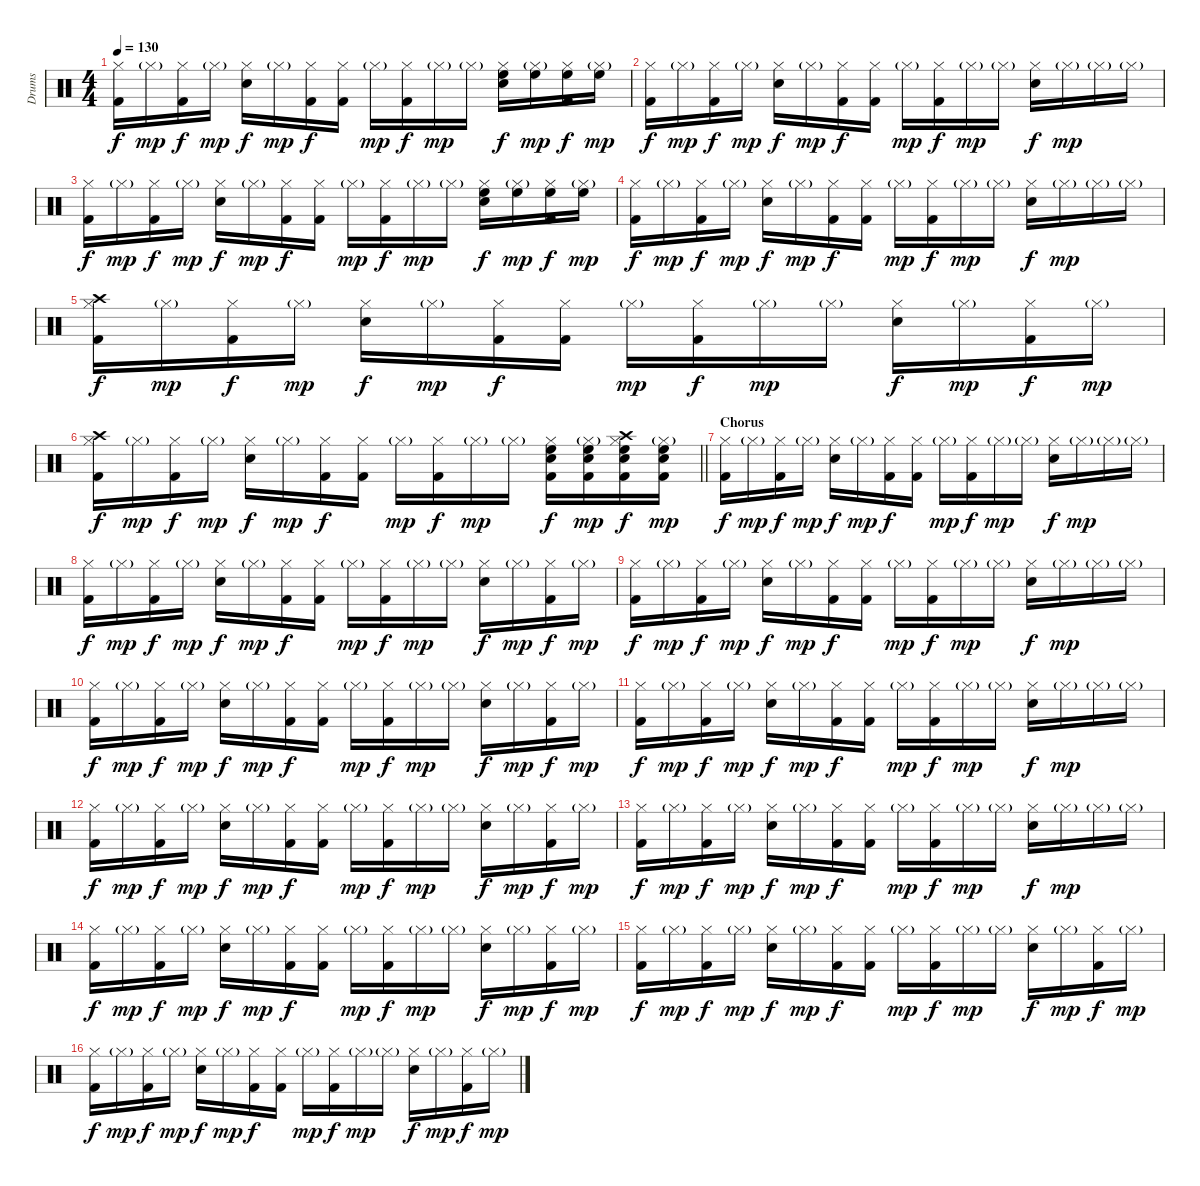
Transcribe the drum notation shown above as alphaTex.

\track ("Drums" "Drums") {instrument percussion}
\staff {score}
\articulation defaults
\ts (4 4)
\tempo 130
\clef neutral
\ks c
("Hi-Hat (closed)" "Kick (hit) 2").16{dy f} "Hi-Hat (closed)"{g}.16{dy mp} ("Hi-Hat (closed)" "Kick (hit) 2").16{dy f} "Hi-Hat (closed)"{g}.16{dy mp} ("Hi-Hat (closed)" "Snare (hit) 2").16{dy f} "Hi-Hat (closed)"{g}.16{dy mp} ("Hi-Hat (closed)" "Kick (hit) 2").16{dy f} ("Hi-Hat (closed)" "Kick (hit) 2").16 "Hi-Hat (closed)"{g}.16{dy mp} ("Hi-Hat (closed)" "Kick (hit) 2").16{dy f} "Hi-Hat (closed)"{g}.16{dy mp} "Hi-Hat (closed)"{g}.16 ("Hi-Hat (closed)" "Snare (hit) 2" "High Floor Tom (hit)").16{dy f} ("Hi-Hat (closed)"{g} "High Floor Tom (hit)").16{dy mp} ("Hi-Hat (closed)" "Kick (hit) 2" "High Floor Tom (hit)").16{dy f} ("Hi-Hat (closed)"{g} "High Floor Tom (hit)").16{dy mp} |
("Hi-Hat (closed)" "Kick (hit) 2").16{dy f} "Hi-Hat (closed)"{g}.16{dy mp} ("Hi-Hat (closed)" "Kick (hit) 2").16{dy f} "Hi-Hat (closed)"{g}.16{dy mp} ("Hi-Hat (closed)" "Snare (hit) 2").16{dy f} "Hi-Hat (closed)"{g}.16{dy mp} ("Hi-Hat (closed)" "Kick (hit) 2").16{dy f} ("Hi-Hat (closed)" "Kick (hit) 2").16 "Hi-Hat (closed)"{g}.16{dy mp} ("Hi-Hat (closed)" "Kick (hit) 2").16{dy f} "Hi-Hat (closed)"{g}.16{dy mp} "Hi-Hat (closed)"{g}.16 ("Hi-Hat (closed)" "Snare (hit) 2").16{dy f} "Hi-Hat (closed)"{g}.16{dy mp} "Hi-Hat (closed)"{g}.16 "Hi-Hat (closed)"{g}.16 |
("Hi-Hat (closed)" "Kick (hit) 2").16{dy f} "Hi-Hat (closed)"{g}.16{dy mp} ("Hi-Hat (closed)" "Kick (hit) 2").16{dy f} "Hi-Hat (closed)"{g}.16{dy mp} ("Hi-Hat (closed)" "Snare (hit) 2").16{dy f} "Hi-Hat (closed)"{g}.16{dy mp} ("Hi-Hat (closed)" "Kick (hit) 2").16{dy f} ("Hi-Hat (closed)" "Kick (hit) 2").16 "Hi-Hat (closed)"{g}.16{dy mp} ("Hi-Hat (closed)" "Kick (hit) 2").16{dy f} "Hi-Hat (closed)"{g}.16{dy mp} "Hi-Hat (closed)"{g}.16 ("Hi-Hat (closed)" "Snare (hit) 2" "High Floor Tom (hit)").16{dy f} ("Hi-Hat (closed)"{g} "High Floor Tom (hit)").16{dy mp} ("Hi-Hat (closed)" "Kick (hit) 2" "High Floor Tom (hit)").16{dy f} ("Hi-Hat (closed)"{g} "High Floor Tom (hit)").16{dy mp} |
("Hi-Hat (closed)" "Kick (hit) 2").16{dy f} "Hi-Hat (closed)"{g}.16{dy mp} ("Hi-Hat (closed)" "Kick (hit) 2").16{dy f} "Hi-Hat (closed)"{g}.16{dy mp} ("Hi-Hat (closed)" "Snare (hit) 2").16{dy f} "Hi-Hat (closed)"{g}.16{dy mp} ("Hi-Hat (closed)" "Kick (hit) 2").16{dy f} ("Hi-Hat (closed)" "Kick (hit) 2").16 "Hi-Hat (closed)"{g}.16{dy mp} ("Hi-Hat (closed)" "Kick (hit) 2").16{dy f} "Hi-Hat (closed)"{g}.16{dy mp} "Hi-Hat (closed)"{g}.16 ("Hi-Hat (closed)" "Snare (hit) 2").16{dy f} "Hi-Hat (closed)"{g}.16{dy mp} "Hi-Hat (closed)"{g}.16 "Hi-Hat (closed)"{g}.16 |
("Hi-Hat (closed)" "Kick (hit) 2" "Crash high (hit)").16{dy f} "Hi-Hat (closed)"{g}.16{dy mp} ("Hi-Hat (closed)" "Kick (hit) 2").16{dy f} "Hi-Hat (closed)"{g}.16{dy mp} ("Hi-Hat (closed)" "Snare (hit) 2").16{dy f} "Hi-Hat (closed)"{g}.16{dy mp} ("Hi-Hat (closed)" "Kick (hit) 2").16{dy f} ("Hi-Hat (closed)" "Kick (hit) 2").16 "Hi-Hat (closed)"{g}.16{dy mp} ("Hi-Hat (closed)" "Kick (hit) 2").16{dy f} "Hi-Hat (closed)"{g}.16{dy mp} "Hi-Hat (closed)"{g}.16 ("Hi-Hat (closed)" "Snare (hit) 2").16{dy f} "Hi-Hat (closed)"{g}.16{dy mp} ("Hi-Hat (closed)" "Kick (hit) 2").16{dy f} "Hi-Hat (closed)"{g}.16{dy mp} |
\barLineRight lightlight
("Hi-Hat (closed)" "Kick (hit) 2" "Crash high (hit)").16{dy f} "Hi-Hat (closed)"{g}.16{dy mp} ("Hi-Hat (closed)" "Kick (hit) 2").16{dy f} "Hi-Hat (closed)"{g}.16{dy mp} ("Hi-Hat (closed)" "Snare (hit) 2").16{dy f} "Hi-Hat (closed)"{g}.16{dy mp} ("Hi-Hat (closed)" "Kick (hit) 2").16{dy f} ("Hi-Hat (closed)" "Kick (hit) 2").16 "Hi-Hat (closed)"{g}.16{dy mp} ("Hi-Hat (closed)" "Kick (hit) 2").16{dy f} "Hi-Hat (closed)"{g}.16{dy mp} "Hi-Hat (closed)"{g}.16 ("Hi-Hat (closed)" "Snare (hit) 2" "High Floor Tom (hit)" "Kick (hit) 2").16{dy f} ("Hi-Hat (closed)"{g} "Snare (hit) 2" "High Floor Tom (hit)" "Kick (hit) 2").16{dy mp} ("Hi-Hat (closed)" "Snare (hit) 2" "High Floor Tom (hit)" "Kick (hit) 2" "Crash high (hit)").16{dy f} ("Hi-Hat (closed)"{g} "Snare (hit) 2" "High Floor Tom (hit)" "Kick (hit) 2").16{dy mp} |
\section ("" "Chorus")
("Hi-Hat (closed)" "Kick (hit) 2").16{dy f} "Hi-Hat (closed)"{g}.16{dy mp} ("Hi-Hat (closed)" "Kick (hit) 2").16{dy f} "Hi-Hat (closed)"{g}.16{dy mp} ("Hi-Hat (closed)" "Snare (hit) 2").16{dy f} "Hi-Hat (closed)"{g}.16{dy mp} ("Hi-Hat (closed)" "Kick (hit) 2").16{dy f} ("Hi-Hat (closed)" "Kick (hit) 2").16 "Hi-Hat (closed)"{g}.16{dy mp} ("Hi-Hat (closed)" "Kick (hit) 2").16{dy f} "Hi-Hat (closed)"{g}.16{dy mp} "Hi-Hat (closed)"{g}.16 ("Hi-Hat (closed)" "Snare (hit) 2").16{dy f} "Hi-Hat (closed)"{g}.16{dy mp} "Hi-Hat (closed)"{g}.16 "Hi-Hat (closed)"{g}.16 |
("Hi-Hat (closed)" "Kick (hit) 2").16{dy f} "Hi-Hat (closed)"{g}.16{dy mp} ("Hi-Hat (closed)" "Kick (hit) 2").16{dy f} "Hi-Hat (closed)"{g}.16{dy mp} ("Hi-Hat (closed)" "Snare (hit) 2").16{dy f} "Hi-Hat (closed)"{g}.16{dy mp} ("Hi-Hat (closed)" "Kick (hit) 2").16{dy f} ("Hi-Hat (closed)" "Kick (hit) 2").16 "Hi-Hat (closed)"{g}.16{dy mp} ("Hi-Hat (closed)" "Kick (hit) 2").16{dy f} "Hi-Hat (closed)"{g}.16{dy mp} "Hi-Hat (closed)"{g}.16 ("Hi-Hat (closed)" "Snare (hit) 2").16{dy f} "Hi-Hat (closed)"{g}.16{dy mp} ("Hi-Hat (closed)" "Kick (hit) 2").16{dy f} "Hi-Hat (closed)"{g}.16{dy mp} |
("Hi-Hat (closed)" "Kick (hit) 2").16{dy f} "Hi-Hat (closed)"{g}.16{dy mp} ("Hi-Hat (closed)" "Kick (hit) 2").16{dy f} "Hi-Hat (closed)"{g}.16{dy mp} ("Hi-Hat (closed)" "Snare (hit) 2").16{dy f} "Hi-Hat (closed)"{g}.16{dy mp} ("Hi-Hat (closed)" "Kick (hit) 2").16{dy f} ("Hi-Hat (closed)" "Kick (hit) 2").16 "Hi-Hat (closed)"{g}.16{dy mp} ("Hi-Hat (closed)" "Kick (hit) 2").16{dy f} "Hi-Hat (closed)"{g}.16{dy mp} "Hi-Hat (closed)"{g}.16 ("Hi-Hat (closed)" "Snare (hit) 2").16{dy f} "Hi-Hat (closed)"{g}.16{dy mp} "Hi-Hat (closed)"{g}.16 "Hi-Hat (closed)"{g}.16 |
("Hi-Hat (closed)" "Kick (hit) 2").16{dy f} "Hi-Hat (closed)"{g}.16{dy mp} ("Hi-Hat (closed)" "Kick (hit) 2").16{dy f} "Hi-Hat (closed)"{g}.16{dy mp} ("Hi-Hat (closed)" "Snare (hit) 2").16{dy f} "Hi-Hat (closed)"{g}.16{dy mp} ("Hi-Hat (closed)" "Kick (hit) 2").16{dy f} ("Hi-Hat (closed)" "Kick (hit) 2").16 "Hi-Hat (closed)"{g}.16{dy mp} ("Hi-Hat (closed)" "Kick (hit) 2").16{dy f} "Hi-Hat (closed)"{g}.16{dy mp} "Hi-Hat (closed)"{g}.16 ("Hi-Hat (closed)" "Snare (hit) 2").16{dy f} "Hi-Hat (closed)"{g}.16{dy mp} ("Hi-Hat (closed)" "Kick (hit) 2").16{dy f} "Hi-Hat (closed)"{g}.16{dy mp} |
("Hi-Hat (closed)" "Kick (hit) 2").16{dy f} "Hi-Hat (closed)"{g}.16{dy mp} ("Hi-Hat (closed)" "Kick (hit) 2").16{dy f} "Hi-Hat (closed)"{g}.16{dy mp} ("Hi-Hat (closed)" "Snare (hit) 2").16{dy f} "Hi-Hat (closed)"{g}.16{dy mp} ("Hi-Hat (closed)" "Kick (hit) 2").16{dy f} ("Hi-Hat (closed)" "Kick (hit) 2").16 "Hi-Hat (closed)"{g}.16{dy mp} ("Hi-Hat (closed)" "Kick (hit) 2").16{dy f} "Hi-Hat (closed)"{g}.16{dy mp} "Hi-Hat (closed)"{g}.16 ("Hi-Hat (closed)" "Snare (hit) 2").16{dy f} "Hi-Hat (closed)"{g}.16{dy mp} "Hi-Hat (closed)"{g}.16 "Hi-Hat (closed)"{g}.16 |
("Hi-Hat (closed)" "Kick (hit) 2").16{dy f} "Hi-Hat (closed)"{g}.16{dy mp} ("Hi-Hat (closed)" "Kick (hit) 2").16{dy f} "Hi-Hat (closed)"{g}.16{dy mp} ("Hi-Hat (closed)" "Snare (hit) 2").16{dy f} "Hi-Hat (closed)"{g}.16{dy mp} ("Hi-Hat (closed)" "Kick (hit) 2").16{dy f} ("Hi-Hat (closed)" "Kick (hit) 2").16 "Hi-Hat (closed)"{g}.16{dy mp} ("Hi-Hat (closed)" "Kick (hit) 2").16{dy f} "Hi-Hat (closed)"{g}.16{dy mp} "Hi-Hat (closed)"{g}.16 ("Hi-Hat (closed)" "Snare (hit) 2").16{dy f} "Hi-Hat (closed)"{g}.16{dy mp} ("Hi-Hat (closed)" "Kick (hit) 2").16{dy f} "Hi-Hat (closed)"{g}.16{dy mp} |
("Hi-Hat (closed)" "Kick (hit) 2").16{dy f} "Hi-Hat (closed)"{g}.16{dy mp} ("Hi-Hat (closed)" "Kick (hit) 2").16{dy f} "Hi-Hat (closed)"{g}.16{dy mp} ("Hi-Hat (closed)" "Snare (hit) 2").16{dy f} "Hi-Hat (closed)"{g}.16{dy mp} ("Hi-Hat (closed)" "Kick (hit) 2").16{dy f} ("Hi-Hat (closed)" "Kick (hit) 2").16 "Hi-Hat (closed)"{g}.16{dy mp} ("Hi-Hat (closed)" "Kick (hit) 2").16{dy f} "Hi-Hat (closed)"{g}.16{dy mp} "Hi-Hat (closed)"{g}.16 ("Hi-Hat (closed)" "Snare (hit) 2").16{dy f} "Hi-Hat (closed)"{g}.16{dy mp} "Hi-Hat (closed)"{g}.16 "Hi-Hat (closed)"{g}.16 |
("Hi-Hat (closed)" "Kick (hit) 2").16{dy f} "Hi-Hat (closed)"{g}.16{dy mp} ("Hi-Hat (closed)" "Kick (hit) 2").16{dy f} "Hi-Hat (closed)"{g}.16{dy mp} ("Hi-Hat (closed)" "Snare (hit) 2").16{dy f} "Hi-Hat (closed)"{g}.16{dy mp} ("Hi-Hat (closed)" "Kick (hit) 2").16{dy f} ("Hi-Hat (closed)" "Kick (hit) 2").16 "Hi-Hat (closed)"{g}.16{dy mp} ("Hi-Hat (closed)" "Kick (hit) 2").16{dy f} "Hi-Hat (closed)"{g}.16{dy mp} "Hi-Hat (closed)"{g}.16 ("Hi-Hat (closed)" "Snare (hit) 2").16{dy f} "Hi-Hat (closed)"{g}.16{dy mp} ("Hi-Hat (closed)" "Kick (hit) 2").16{dy f} "Hi-Hat (closed)"{g}.16{dy mp} |
("Hi-Hat (closed)" "Kick (hit) 2").16{dy f} "Hi-Hat (closed)"{g}.16{dy mp} ("Hi-Hat (closed)" "Kick (hit) 2").16{dy f} "Hi-Hat (closed)"{g}.16{dy mp} ("Hi-Hat (closed)" "Snare (hit) 2").16{dy f} "Hi-Hat (closed)"{g}.16{dy mp} ("Hi-Hat (closed)" "Kick (hit) 2").16{dy f} ("Hi-Hat (closed)" "Kick (hit) 2").16 "Hi-Hat (closed)"{g}.16{dy mp} ("Hi-Hat (closed)" "Kick (hit) 2").16{dy f} "Hi-Hat (closed)"{g}.16{dy mp} "Hi-Hat (closed)"{g}.16 ("Hi-Hat (closed)" "Snare (hit) 2").16{dy f} "Hi-Hat (closed)"{g}.16{dy mp} ("Hi-Hat (closed)" "Kick (hit) 2").16{dy f} "Hi-Hat (closed)"{g}.16{dy mp} |
("Hi-Hat (closed)" "Kick (hit) 2").16{dy f} "Hi-Hat (closed)"{g}.16{dy mp} ("Hi-Hat (closed)" "Kick (hit) 2").16{dy f} "Hi-Hat (closed)"{g}.16{dy mp} ("Hi-Hat (closed)" "Snare (hit) 2").16{dy f} "Hi-Hat (closed)"{g}.16{dy mp} ("Hi-Hat (closed)" "Kick (hit) 2").16{dy f} ("Hi-Hat (closed)" "Kick (hit) 2").16 "Hi-Hat (closed)"{g}.16{dy mp} ("Hi-Hat (closed)" "Kick (hit) 2").16{dy f} "Hi-Hat (closed)"{g}.16{dy mp} "Hi-Hat (closed)"{g}.16 ("Hi-Hat (closed)" "Snare (hit) 2").16{dy f} "Hi-Hat (closed)"{g}.16{dy mp} ("Hi-Hat (closed)" "Kick (hit) 2").16{dy f} "Hi-Hat (closed)"{g}.16{dy mp}
